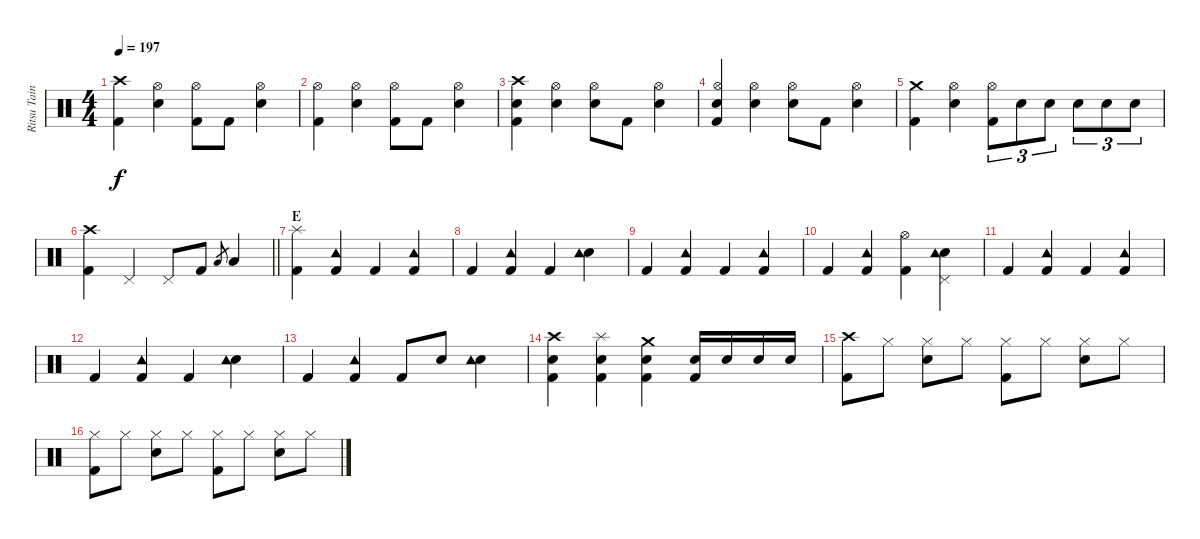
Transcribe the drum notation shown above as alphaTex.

\track ("Ritsu Tainaka" "Ritsu Tain") {instrument percussion}
\staff {score}
\articulation defaults
\ts (4 4)
\tempo 197
\clef neutral
\ks c
("Crash high (hit)" "Kick (hit) 2").4{dy f} ("Hi-Hat (open)" "Electric Snare (hit)").4 ("Hi-Hat (open)" "Kick (hit) 2").8 "Kick (hit) 2".8 ("Hi-Hat (open)" "Electric Snare (hit)").4 |
("Hi-Hat (open)" "Kick (hit) 2").4 ("Hi-Hat (open)" "Electric Snare (hit)").4 ("Hi-Hat (open)" "Kick (hit) 2").8 "Kick (hit) 2".8 ("Hi-Hat (open)" "Electric Snare (hit)").4 |
("Crash high (hit)" "Electric Snare (hit)" "Kick (hit) 2").4 ("Hi-Hat (open)" "Electric Snare (hit)").4 ("Hi-Hat (open)" "Electric Snare (hit)").8 "Kick (hit) 2".8 ("Hi-Hat (open)" "Electric Snare (hit)").4 |
("Hi-Hat (open)" "Electric Snare (hit)" "Kick (hit) 2").4 ("Hi-Hat (open)" "Electric Snare (hit)").4 ("Hi-Hat (open)" "Electric Snare (hit)").8 "Kick (hit) 2".8 ("Hi-Hat (open)" "Electric Snare (hit)").4 |
("Crash medium (hit)" "Kick (hit) 2").4 ("Hi-Hat (open)" "Electric Snare (hit)").4 ("Hi-Hat (open)" "Kick (hit) 2").8{tu (3 2)} "Electric Snare (hit)".8{tu (3 2)} "Electric Snare (hit)".8{tu (3 2)} "Electric Snare (hit)".8{tu (3 2)} "Electric Snare (hit)".8{tu (3 2)} "Electric Snare (hit)".8{tu (3 2)} |
\barLineRight lightlight
("Crash high (hit)" "Kick (hit) 2").4 "Pedal Hi-Hat (hit)".4 "Pedal Hi-Hat (hit)".8 "Kick (hit) 2".8 "Low Floor Tom (hit)".8{gr} "Low Floor Tom (hit)".4 |
\section ("" "E")
("Splash (hit)" "Kick (hit) 2").4 ("Tambourine (hit)" "Kick (hit) 2").4 "Kick (hit) 2".4 ("Tambourine (hit)" "Kick (hit) 2").4 |
"Kick (hit) 2".4 ("Tambourine (hit)" "Kick (hit) 2").4 "Kick (hit) 2".4 ("Electric Snare (hit)" "Tambourine (hit)").4 |
"Kick (hit) 2".4 ("Tambourine (hit)" "Kick (hit) 2").4 "Kick (hit) 2".4 ("Tambourine (hit)" "Kick (hit) 2").4 |
"Kick (hit) 2".4 ("Tambourine (hit)" "Kick (hit) 2").4 ("Hi-Hat (open)" "Kick (hit) 2").4 ("Pedal Hi-Hat (hit)" "Electric Snare (hit)" "Tambourine (hit)").4 |
"Kick (hit) 2".4 ("Tambourine (hit)" "Kick (hit) 2").4 "Kick (hit) 2".4 ("Tambourine (hit)" "Kick (hit) 2").4 |
"Kick (hit) 2".4 ("Tambourine (hit)" "Kick (hit) 2").4 "Kick (hit) 2".4 ("Electric Snare (hit)" "Tambourine (hit)").4 |
"Kick (hit) 2".4 ("Tambourine (hit)" "Kick (hit) 2").4 "Kick (hit) 2".8 "Electric Snare (hit)".8 ("Electric Snare (hit)" "Tambourine (hit)").4 |
("Crash high (hit)" "Electric Snare (hit)" "Kick (hit) 2").4 ("Splash (hit)" "Electric Snare (hit)" "Kick (hit) 2").4 ("Crash medium (hit)" "Electric Snare (hit)" "Kick (hit) 2").4 ("Electric Snare (hit)" "Kick (hit) 2").16 "Electric Snare (hit)".16 "Electric Snare (hit)".16 "Electric Snare (hit)".16 |
("Crash high (hit)" "Kick (hit) 2").8 "Hi-Hat (closed)".8 ("Hi-Hat (closed)" "Electric Snare (hit)").8 "Hi-Hat (closed)".8 ("Hi-Hat (closed)" "Kick (hit) 2").8 "Hi-Hat (closed)".8 ("Hi-Hat (closed)" "Electric Snare (hit)").8 "Hi-Hat (closed)".8 |
("Hi-Hat (closed)" "Kick (hit) 2").8 "Hi-Hat (closed)".8 ("Hi-Hat (closed)" "Electric Snare (hit)").8 "Hi-Hat (closed)".8 ("Hi-Hat (closed)" "Kick (hit) 2").8 "Hi-Hat (closed)".8 ("Hi-Hat (closed)" "Electric Snare (hit)").8 "Hi-Hat (closed)".8
